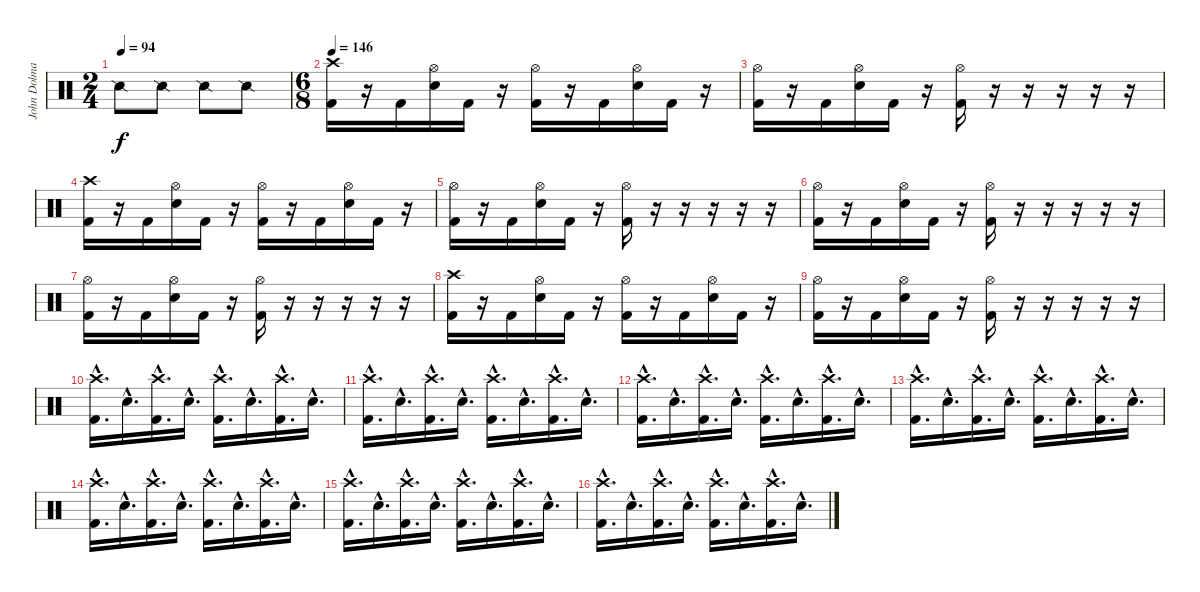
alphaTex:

\track ("John Dolmayan" "John Dolma") {instrument percussion}
\staff {score}
\articulation defaults
\ts (2 4)
\tempo 94
\clef neutral
\ks c "Snare (side stick) 2".8{dy f} "Snare (side stick) 2".8 "Snare (side stick) 2".8 "Snare (side stick) 2".8
|
\ts (6 8)
\tempo 146
("Crash high (hit)" "Kick (hit) 2").16 r.16 "Kick (hit) 2".16 ("Hi-Hat (open)" "Electric Snare (hit)").16 "Kick (hit) 2".16 r.16 ("Hi-Hat (open)" "Kick (hit) 2").16 r.16 "Kick (hit) 2".16 ("Hi-Hat (open)" "Electric Snare (hit)").16 "Kick (hit) 2".16 r.16 |
("Hi-Hat (open)" "Kick (hit) 2").16 r.16 "Kick (hit) 2".16 ("Hi-Hat (open)" "Electric Snare (hit)").16 "Kick (hit) 2".16 r.16 ("Hi-Hat (open)" "Kick (hit) 2").16 r.16{volume 0} r.16 r.16 r.16 r.16 |
("Crash high (hit)" "Kick (hit) 2").16{volume 16} r.16 "Kick (hit) 2".16 ("Hi-Hat (open)" "Electric Snare (hit)").16 "Kick (hit) 2".16 r.16 ("Hi-Hat (open)" "Kick (hit) 2").16 r.16 "Kick (hit) 2".16 ("Hi-Hat (open)" "Electric Snare (hit)").16 "Kick (hit) 2".16 r.16 |
("Hi-Hat (open)" "Kick (hit) 2").16 r.16 "Kick (hit) 2".16 ("Hi-Hat (open)" "Electric Snare (hit)").16 "Kick (hit) 2".16 r.16 ("Hi-Hat (open)" "Kick (hit) 2").16 r.16{volume 0} r.16 r.16 r.16 r.16 |
("Hi-Hat (open)" "Kick (hit) 2").16{volume 16} r.16 "Kick (hit) 2".16 ("Hi-Hat (open)" "Electric Snare (hit)").16 "Kick (hit) 2".16 r.16 ("Hi-Hat (open)" "Kick (hit) 2").16 r.16{volume 0} r.16 r.16 r.16 r.16 |
("Hi-Hat (open)" "Kick (hit) 2").16{volume 16} r.16 "Kick (hit) 2".16 ("Hi-Hat (open)" "Electric Snare (hit)").16 "Kick (hit) 2".16 r.16 ("Hi-Hat (open)" "Kick (hit) 2").16 r.16{volume 0} r.16 r.16 r.16 r.16 |
("Crash high (hit)" "Kick (hit) 2").16{volume 16} r.16 "Kick (hit) 2".16 ("Hi-Hat (open)" "Electric Snare (hit)").16 "Kick (hit) 2".16 r.16 ("Hi-Hat (open)" "Kick (hit) 2").16 r.16 "Kick (hit) 2".16 ("Hi-Hat (open)" "Electric Snare (hit)").16 "Kick (hit) 2".16 r.16 |
("Hi-Hat (open)" "Kick (hit) 2").16 r.16 "Kick (hit) 2".16 ("Hi-Hat (open)" "Electric Snare (hit)").16 "Kick (hit) 2".16 r.16 ("Hi-Hat (open)" "Kick (hit) 2").16 r.16{volume 0} r.16 r.16 r.16 r.16 |
("Crash high (hit)"{hac} "Kick (hit) 2"{hac}).16{d volume 16} "Electric Snare (hit)"{hac}.16{d} ("Crash high (hit)"{hac} "Kick (hit) 2"{hac}).16{d} "Electric Snare (hit)"{hac}.16{d} ("Crash high (hit)"{hac} "Kick (hit) 2"{hac}).16{d} "Electric Snare (hit)"{hac}.16{d} ("Crash high (hit)"{hac} "Kick (hit) 2"{hac}).16{d} "Electric Snare (hit)"{hac}.16{d} |
("Crash high (hit)"{hac} "Kick (hit) 2"{hac}).16{d} "Electric Snare (hit)"{hac}.16{d} ("Crash high (hit)"{hac} "Kick (hit) 2"{hac}).16{d} "Electric Snare (hit)"{hac}.16{d} ("Crash high (hit)"{hac} "Kick (hit) 2"{hac}).16{d} "Electric Snare (hit)"{hac}.16{d} ("Crash high (hit)"{hac} "Kick (hit) 2"{hac}).16{d} "Electric Snare (hit)"{hac}.16{d} |
("Crash high (hit)"{hac} "Kick (hit) 2"{hac}).16{d} "Electric Snare (hit)"{hac}.16{d} ("Crash high (hit)"{hac} "Kick (hit) 2"{hac}).16{d} "Electric Snare (hit)"{hac}.16{d} ("Crash high (hit)"{hac} "Kick (hit) 2"{hac}).16{d} "Electric Snare (hit)"{hac}.16{d} ("Crash high (hit)"{hac} "Kick (hit) 2"{hac}).16{d} "Electric Snare (hit)"{hac}.16{d} |
("Crash high (hit)"{hac} "Kick (hit) 2"{hac}).16{d} "Electric Snare (hit)"{hac}.16{d} ("Crash high (hit)"{hac} "Kick (hit) 2"{hac}).16{d} "Electric Snare (hit)"{hac}.16{d} ("Crash high (hit)"{hac} "Kick (hit) 2"{hac}).16{d} "Electric Snare (hit)"{hac}.16{d} ("Crash high (hit)"{hac} "Kick (hit) 2"{hac}).16{d} "Electric Snare (hit)"{hac}.16{d} |
("Crash high (hit)"{hac} "Kick (hit) 2"{hac}).16{d} "Electric Snare (hit)"{hac}.16{d} ("Crash high (hit)"{hac} "Kick (hit) 2"{hac}).16{d} "Electric Snare (hit)"{hac}.16{d} ("Crash high (hit)"{hac} "Kick (hit) 2"{hac}).16{d} "Electric Snare (hit)"{hac}.16{d} ("Crash high (hit)"{hac} "Kick (hit) 2"{hac}).16{d} "Electric Snare (hit)"{hac}.16{d} |
("Crash high (hit)"{hac} "Kick (hit) 2"{hac}).16{d} "Electric Snare (hit)"{hac}.16{d} ("Crash high (hit)"{hac} "Kick (hit) 2"{hac}).16{d} "Electric Snare (hit)"{hac}.16{d} ("Crash high (hit)"{hac} "Kick (hit) 2"{hac}).16{d} "Electric Snare (hit)"{hac}.16{d} ("Crash high (hit)"{hac} "Kick (hit) 2"{hac}).16{d} "Electric Snare (hit)"{hac}.16{d} |
("Crash high (hit)"{hac} "Kick (hit) 2"{hac}).16{d} "Electric Snare (hit)"{hac}.16{d} ("Crash high (hit)"{hac} "Kick (hit) 2"{hac}).16{d} "Electric Snare (hit)"{hac}.16{d} ("Crash high (hit)"{hac} "Kick (hit) 2"{hac}).16{d} "Electric Snare (hit)"{hac}.16{d} ("Crash high (hit)"{hac} "Kick (hit) 2"{hac}).16{d} "Electric Snare (hit)"{hac}.16{d}
